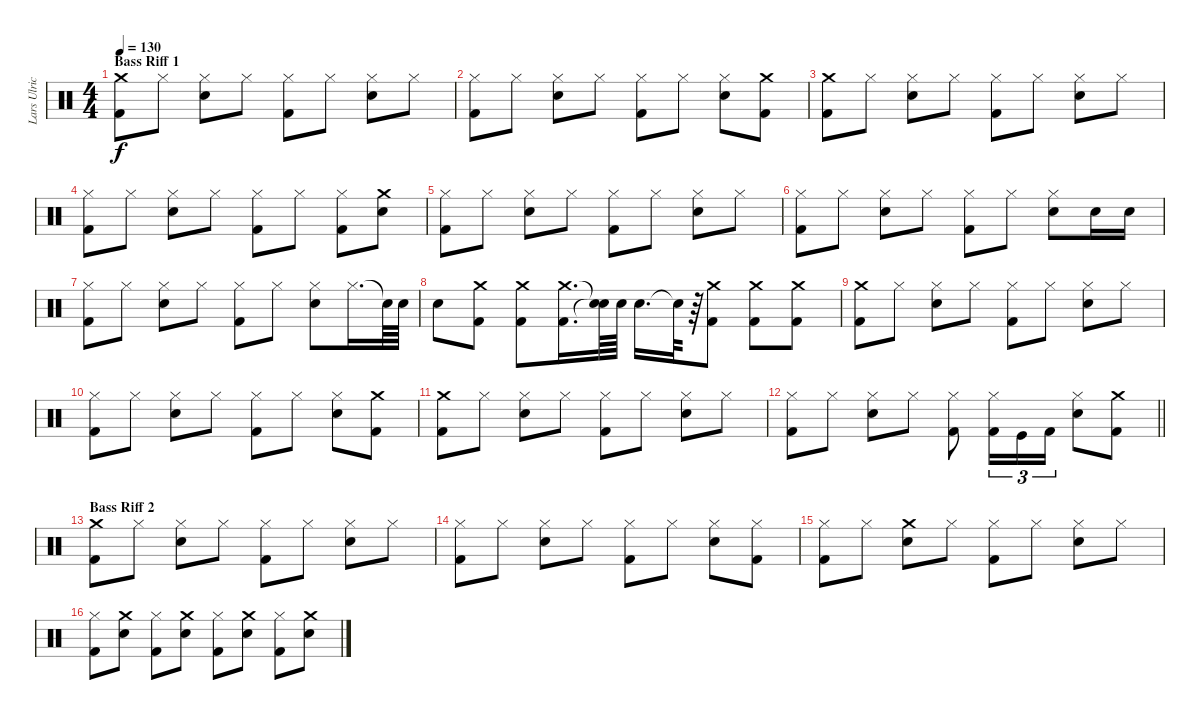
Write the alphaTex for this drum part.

\track ("Lars Ulrich (Drums)" "Lars Ulric") {instrument percussion}
\staff {score}
\articulation defaults
\ts (4 4)
\section ("" "Bass Riff 1")
\tempo 130
\clef neutral
\ks c
("Crash medium (hit)" "Kick (hit) 2").8{dy f} "Hi-Hat (closed)".8 ("Snare (hit) 2" "Hi-Hat (closed)").8 "Hi-Hat (closed)".8 ("Kick (hit) 2" "Hi-Hat (closed)").8 "Hi-Hat (closed)".8 ("Snare (hit) 2" "Hi-Hat (closed)").8 "Hi-Hat (closed)".8 |
("Kick (hit) 2" "Hi-Hat (closed)").8 "Hi-Hat (closed)".8 ("Snare (hit) 2" "Hi-Hat (closed)").8 "Hi-Hat (closed)".8 ("Kick (hit) 2" "Hi-Hat (closed)").8 "Hi-Hat (closed)".8 ("Snare (hit) 2" "Hi-Hat (closed)").8 ("Crash medium (hit)" "Kick (hit) 2").8 |
("Crash medium (hit)" "Kick (hit) 2").8 "Hi-Hat (closed)".8 ("Snare (hit) 2" "Hi-Hat (closed)").8 "Hi-Hat (closed)".8 ("Kick (hit) 2" "Hi-Hat (closed)").8 "Hi-Hat (closed)".8 ("Snare (hit) 2" "Hi-Hat (closed)").8 "Hi-Hat (closed)".8 |
("Kick (hit) 2" "Hi-Hat (closed)").8 "Hi-Hat (closed)".8 ("Snare (hit) 2" "Hi-Hat (closed)").8 "Hi-Hat (closed)".8 ("Kick (hit) 2" "Hi-Hat (closed)").8 "Hi-Hat (closed)".8 ("Kick (hit) 2" "Hi-Hat (closed)").8 ("Crash medium (hit)" "Snare (hit) 2").8 |
("Kick (hit) 2" "Hi-Hat (closed)").8 "Hi-Hat (closed)".8 ("Snare (hit) 2" "Hi-Hat (closed)").8 "Hi-Hat (closed)".8 ("Kick (hit) 2" "Hi-Hat (closed)").8 "Hi-Hat (closed)".8 ("Snare (hit) 2" "Hi-Hat (closed)").8 "Hi-Hat (closed)".8 |
("Hi-Hat (closed)" "Kick (hit) 2").8 "Hi-Hat (closed)".8 ("Snare (hit) 2" "Hi-Hat (closed)").8 "Hi-Hat (closed)".8 ("Hi-Hat (closed)" "Kick (hit) 2").8 "Hi-Hat (closed)".8 ("Snare (hit) 2" "Hi-Hat (closed)").8 "Snare (hit) 2".16 "Snare (hit) 2".16 |
("Kick (hit) 2" "Hi-Hat (closed)").8 "Hi-Hat (closed)".8 ("Snare (hit) 2" "Hi-Hat (closed)").8 "Hi-Hat (closed)".8 ("Kick (hit) 2" "Hi-Hat (closed)").8 "Hi-Hat (closed)".8 ("Snare (hit) 2" "Hi-Hat (closed)").8 "Hi-Hat (closed)".16{d} "Snare (hit)"{t}.64 "Snare (hit) 2".64 |
"Snare (hit) 2".8 ("Kick (hit) 2" "Crash medium (hit)").8 ("Kick (hit) 2" "Crash medium (hit)").8 ("Kick (hit) 2" "Crash medium (hit)").16{d} ("Snare (hit)"{t} "Snare (hit)"{t}).64 "Snare (hit) 2".64 "Snare (hit) 2".16{d} "Snare (hit)"{t}.64 r.64 ("Kick (hit) 2" "Crash medium (hit)").8 ("Kick (hit) 2" "Crash medium (hit)").8 ("Kick (hit) 2" "Crash medium (hit)").8 |
("Kick (hit) 2" "Crash medium (hit)").8 "Hi-Hat (closed)".8 ("Hi-Hat (closed)" "Snare (hit) 2").8 "Hi-Hat (closed)".8 ("Kick (hit) 2" "Hi-Hat (closed)").8 "Hi-Hat (closed)".8 ("Snare (hit) 2" "Hi-Hat (closed)").8 "Hi-Hat (closed)".8 |
("Kick (hit) 2" "Hi-Hat (closed)").8 "Hi-Hat (closed)".8 ("Snare (hit) 2" "Hi-Hat (closed)").8 "Hi-Hat (closed)".8 ("Kick (hit) 2" "Hi-Hat (closed)").8 "Hi-Hat (closed)".8 ("Snare (hit) 2" "Hi-Hat (closed)").8 ("Kick (hit) 2" "Crash medium (hit)").8 |
("Kick (hit) 2" "Crash medium (hit)").8 "Hi-Hat (closed)".8 ("Snare (hit) 2" "Hi-Hat (closed)").8 "Hi-Hat (closed)".8 ("Kick (hit) 2" "Hi-Hat (closed)").8 "Hi-Hat (closed)".8 ("Snare (hit) 2" "Hi-Hat (closed)").8 "Hi-Hat (closed)".8 |
\barLineRight lightlight
("Kick (hit) 2" "Hi-Hat (closed)").8 "Hi-Hat (closed)".8 ("Snare (hit) 2" "Hi-Hat (closed)").8 "Hi-Hat (closed)".8 ("Kick (hit) 2" "Hi-Hat (closed)").8 ("Kick (hit) 2" "Hi-Hat (closed)").16{tu (3 2)} "Kick (hit)".16{tu (3 2)} "Kick (hit) 2".16{tu (3 2)} ("Snare (hit) 2" "Hi-Hat (closed)").8 ("Kick (hit) 2" "Crash medium (hit)").8 |
\section ("" "Bass Riff 2")
("Crash medium (hit)" "Kick (hit) 2").8 "Hi-Hat (closed)".8 ("Snare (hit) 2" "Hi-Hat (closed)").8 "Hi-Hat (closed)".8 ("Kick (hit) 2" "Hi-Hat (closed)").8 "Hi-Hat (closed)".8 ("Snare (hit) 2" "Hi-Hat (closed)").8 "Hi-Hat (closed)".8 |
("Kick (hit) 2" "Hi-Hat (closed)").8 "Hi-Hat (closed)".8 ("Snare (hit) 2" "Hi-Hat (closed)").8 "Hi-Hat (closed)".8 ("Kick (hit) 2" "Hi-Hat (closed)").8 "Hi-Hat (closed)".8 ("Snare (hit) 2" "Hi-Hat (closed)").8 ("Kick (hit) 2" "Hi-Hat (closed)").8 |
("Kick (hit) 2" "Hi-Hat (closed)").8 "Hi-Hat (closed)".8 ("Crash medium (hit)" "Snare (hit) 2").8 "Hi-Hat (closed)".8 ("Kick (hit) 2" "Hi-Hat (closed)").8 "Hi-Hat (closed)".8 ("Snare (hit) 2" "Hi-Hat (closed)").8 "Hi-Hat (closed)".8 |
("Kick (hit) 2" "Hi-Hat (closed)").8 ("Crash medium (hit)" "Snare (hit) 2").8 ("Kick (hit) 2" "Hi-Hat (closed)").8 ("Snare (hit) 2" "Crash medium (hit)").8 ("Kick (hit) 2" "Hi-Hat (closed)").8 ("Crash medium (hit)" "Snare (hit) 2").8 ("Kick (hit) 2" "Hi-Hat (closed)").8 ("Crash medium (hit)" "Snare (hit) 2").8
